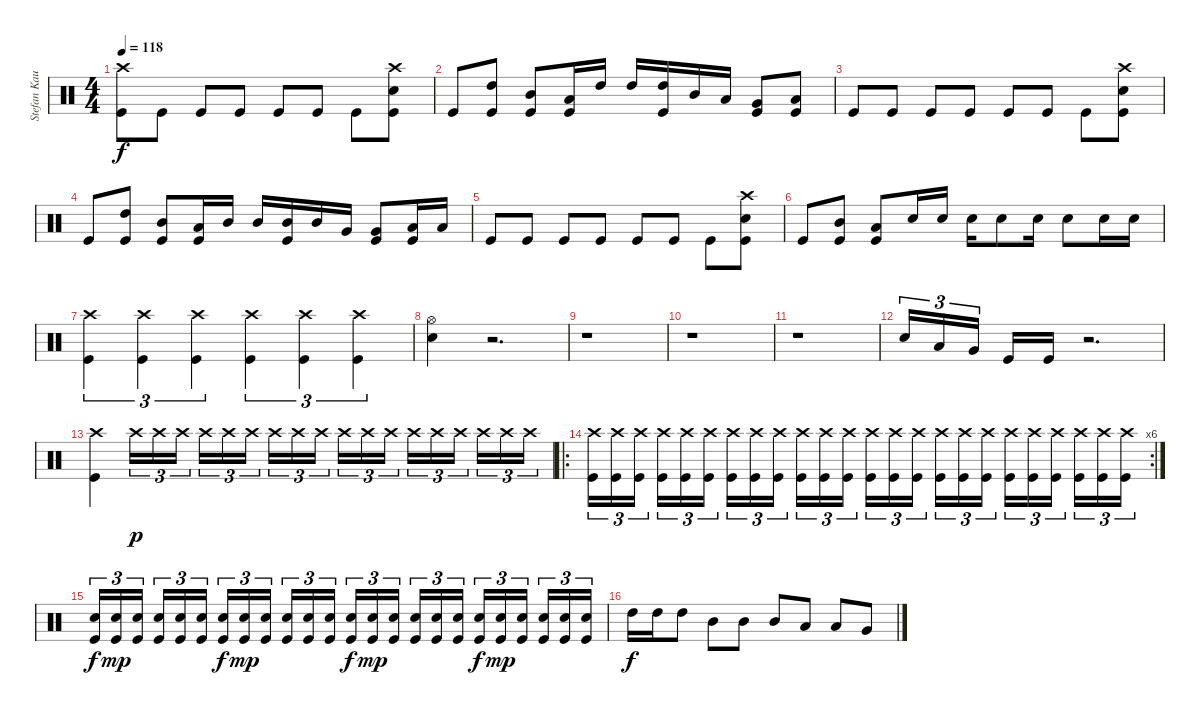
\track ("Stefan Kaufmann" "Stefan Kau") {instrument percussion}
\staff {score}
\articulation defaults
\ts (4 4)
\tempo 118
\clef neutral
\ks c
("Crash high (hit)" "Kick (hit)").8{dy f} "Kick (hit)".8 "Kick (hit)".8 "Kick (hit)".8 "Kick (hit)".8 "Kick (hit)".8 "Kick (hit)".8 ("Crash high (hit)" "Snare (hit) 2" "Kick (hit)").8 |
"Kick (hit)".8 ("High Tom (hit)" "Kick (hit)").8 ("Mid Tom (hit)" "Kick (hit)").8 ("Low Tom (hit)" "Kick (hit)").16 "High Tom (hit)".16 "High Tom (hit)".16 ("High Tom (hit)" "Kick (hit)").16 "Mid Tom (hit)".16 "Low Tom (hit)".16 ("Very Low Tom (hit)" "Kick (hit)").8 ("Low Floor Tom (hit)" "Kick (hit)").8 |
"Kick (hit)".8 "Kick (hit)".8 "Kick (hit)".8 "Kick (hit)".8 "Kick (hit)".8 "Kick (hit)".8 "Kick (hit)".8 ("Crash high (hit)" "Snare (hit) 2" "Kick (hit)").8 |
"Kick (hit)".8 ("High Tom (hit)" "Kick (hit)").8 ("Mid Tom (hit)" "Kick (hit)").8 ("Low Tom (hit)" "Kick (hit)").16 "Mid Tom (hit)".16 "Mid Tom (hit)".16 ("Mid Tom (hit)" "Kick (hit)").16 "Mid Tom (hit)".16 "Very Low Tom (hit)".16 ("Very Low Tom (hit)" "Kick (hit)").8 ("Low Floor Tom (hit)" "Kick (hit)").16 "Low Floor Tom (hit)".16 |
"Kick (hit)".8 "Kick (hit)".8 "Kick (hit)".8 "Kick (hit)".8 "Kick (hit)".8 "Kick (hit)".8 "Kick (hit)".8 ("Crash high (hit)" "Snare (hit) 2" "Kick (hit)").8 |
"Kick (hit)".8 ("Mid Tom (hit)" "Kick (hit)").8 ("Low Tom (hit)" "Kick (hit)").8 "Snare (hit) 2".16 "Snare (hit) 2".16 "Snare (hit) 2".16 "Snare (hit) 2".8 "Snare (hit) 2".16 "Snare (hit) 2".8 "Snare (hit) 2".16 "Snare (hit) 2".16 |
("Crash high (hit)" "Kick (hit)").4{tu (3 2)} ("Crash high (hit)" "Kick (hit)").4{tu (3 2)} ("Crash high (hit)" "Kick (hit)").4{tu (3 2)} ("Crash high (hit)" "Kick (hit)").4{tu (3 2)} ("Crash high (hit)" "Kick (hit)").4{tu (3 2)} ("Crash high (hit)" "Kick (hit)").4{tu (3 2)} |
("Hi-Hat (open)" "Snare (hit) 2").4 r.2{d} |
r.1 |
r.1 |
r.1 |
"Snare (hit) 2".16{tu (3 2)} "Low Tom (hit)".16{tu (3 2)} "Very Low Tom (hit)".16{tu (3 2)} "Kick (hit)".16 "Kick (hit)".16 r.2{d} |
("Crash high (hit)" "Kick (hit)").4 "Crash high (hit)".16{tu (3 2) dy p} "Crash high (hit)".16{tu (3 2)} "Crash high (hit)".16{tu (3 2)} "Crash high (hit)".16{tu (3 2)} "Crash high (hit)".16{tu (3 2)} "Crash high (hit)".16{tu (3 2)} "Crash high (hit)".16{tu (3 2)} "Crash high (hit)".16{tu (3 2)} "Crash high (hit)".16{tu (3 2)} "Crash high (hit)".16{tu (3 2)} "Crash high (hit)".16{tu (3 2)} "Crash high (hit)".16{tu (3 2)} "Crash high (hit)".16{tu (3 2)} "Crash high (hit)".16{tu (3 2)} "Crash high (hit)".16{tu (3 2)} "Crash high (hit)".16{tu (3 2)} "Crash high (hit)".16{tu (3 2)} "Crash high (hit)".16{tu (3 2)} |
\ro
\rc 6
("Crash high (hit)" "Kick (hit)").16{tu (3 2)} ("Crash high (hit)" "Kick (hit)").16{tu (3 2)} ("Crash high (hit)" "Kick (hit)").16{tu (3 2)} ("Crash high (hit)" "Kick (hit)").16{tu (3 2)} ("Crash high (hit)" "Kick (hit)").16{tu (3 2)} ("Crash high (hit)" "Kick (hit)").16{tu (3 2)} ("Crash high (hit)" "Kick (hit)").16{tu (3 2)} ("Crash high (hit)" "Kick (hit)").16{tu (3 2)} ("Crash high (hit)" "Kick (hit)").16{tu (3 2)} ("Crash high (hit)" "Kick (hit)").16{tu (3 2)} ("Crash high (hit)" "Kick (hit)").16{tu (3 2)} ("Crash high (hit)" "Kick (hit)").16{tu (3 2)} ("Crash high (hit)" "Kick (hit)").16{tu (3 2)} ("Crash high (hit)" "Kick (hit)").16{tu (3 2)} ("Crash high (hit)" "Kick (hit)").16{tu (3 2)} ("Crash high (hit)" "Kick (hit)").16{tu (3 2)} ("Crash high (hit)" "Kick (hit)").16{tu (3 2)} ("Crash high (hit)" "Kick (hit)").16{tu (3 2)} ("Crash high (hit)" "Kick (hit)").16{tu (3 2)} ("Crash high (hit)" "Kick (hit)").16{tu (3 2)} ("Crash high (hit)" "Kick (hit)").16{tu (3 2)} ("Crash high (hit)" "Kick (hit)").16{tu (3 2)} ("Crash high (hit)" "Kick (hit)").16{tu (3 2)} ("Crash high (hit)" "Kick (hit)").16{tu (3 2)} |
("Snare (hit) 2" "Kick (hit)").16{tu (3 2) dy f} ("Snare (hit) 2" "Kick (hit)").16{tu (3 2) dy mp} ("Snare (hit) 2" "Kick (hit)").16{tu (3 2)} ("Snare (hit) 2" "Kick (hit)").16{tu (3 2)} ("Snare (hit) 2" "Kick (hit)").16{tu (3 2)} ("Snare (hit) 2" "Kick (hit)").16{tu (3 2)} ("Snare (hit) 2" "Kick (hit)").16{tu (3 2) dy f} ("Snare (hit) 2" "Kick (hit)").16{tu (3 2) dy mp} ("Snare (hit) 2" "Kick (hit)").16{tu (3 2)} ("Snare (hit) 2" "Kick (hit)").16{tu (3 2)} ("Snare (hit) 2" "Kick (hit)").16{tu (3 2)} ("Snare (hit) 2" "Kick (hit)").16{tu (3 2)} ("Snare (hit) 2" "Kick (hit)").16{tu (3 2) dy f} ("Snare (hit) 2" "Kick (hit)").16{tu (3 2) dy mp} ("Snare (hit) 2" "Kick (hit)").16{tu (3 2)} ("Snare (hit) 2" "Kick (hit)").16{tu (3 2)} ("Snare (hit) 2" "Kick (hit)").16{tu (3 2)} ("Snare (hit) 2" "Kick (hit)").16{tu (3 2)} ("Snare (hit) 2" "Kick (hit)").16{tu (3 2) dy f} ("Snare (hit) 2" "Kick (hit)").16{tu (3 2) dy mp} ("Snare (hit) 2" "Kick (hit)").16{tu (3 2)} ("Snare (hit) 2" "Kick (hit)").16{tu (3 2)} ("Snare (hit) 2" "Kick (hit)").16{tu (3 2)} ("Snare (hit) 2" "Kick (hit)").16{tu (3 2)} |
"High Tom (hit)".16{dy f} "High Tom (hit)".16 "High Tom (hit)".8 "Mid Tom (hit)".8 "Mid Tom (hit)".8 "Mid Tom (hit)".8 "Low Tom (hit)".8 "Low Tom (hit)".8 "Very Low Tom (hit)".8
